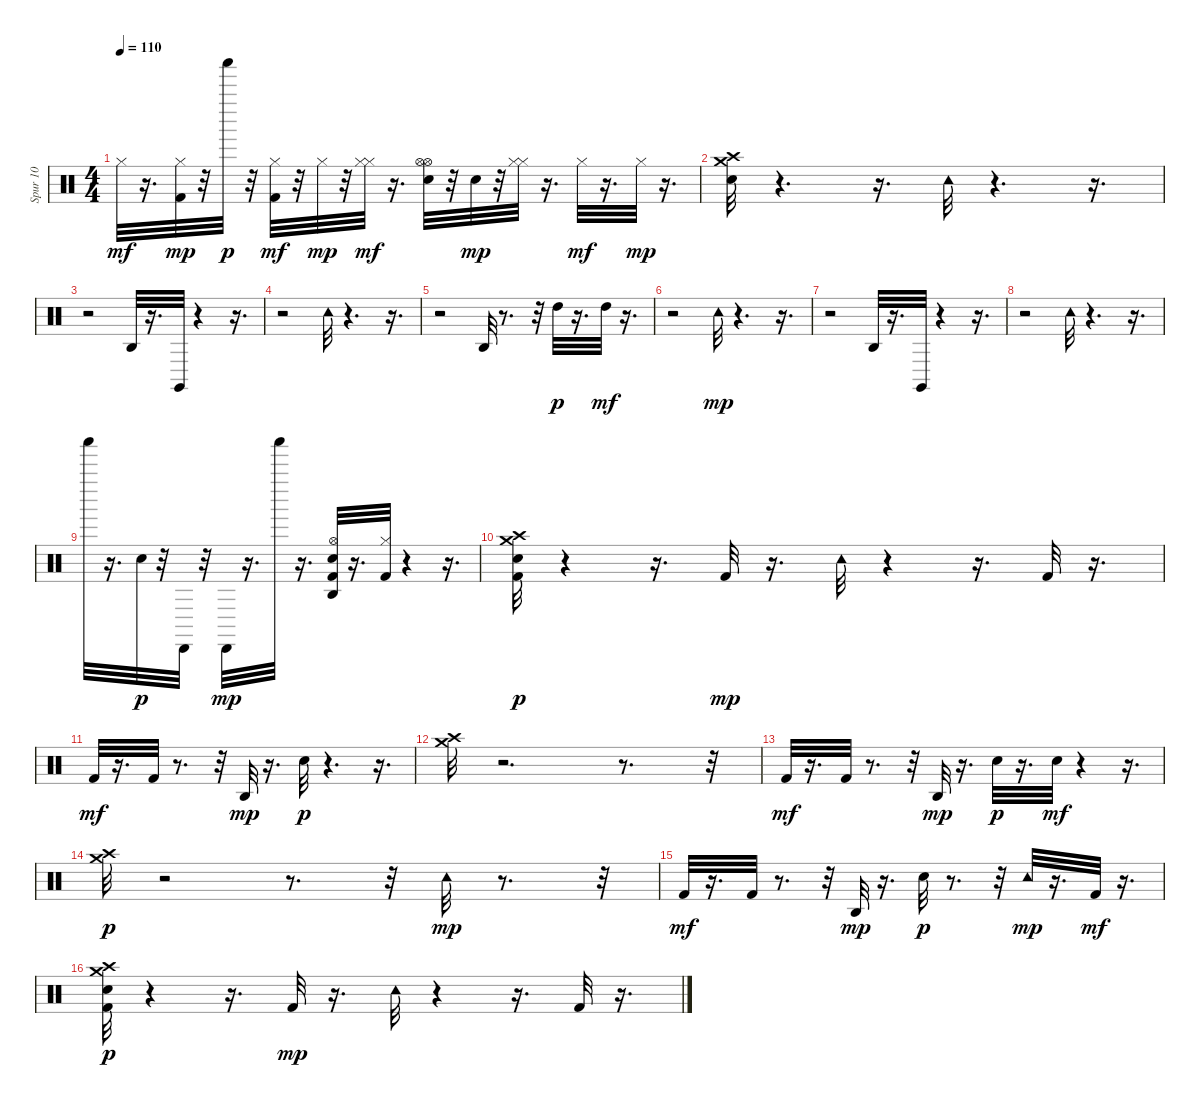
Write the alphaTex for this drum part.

\track ("Spur 10" "Spur 10") {instrument percussion}
\staff {score}
\articulation defaults
\ts (4 4)
\tempo 110
\clef neutral
\ks c "Hi-Hat (closed)".32{dy mf}
r.16{d} ("Kick (hit) 2" "Hi-Hat (closed)").32{dy mp} r.32 "Shaker (hit)".32{dy p} r.32 ("Kick (hit) 2" "Hi-Hat (closed)").32{dy mf} r.32 "Hi-Hat (closed)".32{dy mp} r.32 ("Hi-Hat (closed)" "Hi-Hat (closed)").32{dy mf} r.16{d} ("Hi-Hat (open)" "Snare (hit) 2" "Hi-Hat (open)").32 r.32 "Snare (hit)".32{dy mp} r.32 ("Hi-Hat (closed)" "Hi-Hat (closed)").32 r.16{d} "Hi-Hat (closed)".32{dy mf} r.16{d} "Hi-Hat (closed)".32{dy mp} r.16{d} |
("Snare (hit) 2" "Crash medium (hit)" "Crash high (hit)").32 r.4{d} r.16{d} "Tambourine (hit)".32 r.4{d} r.16{d} |
r.2 "Agogo high (hit)".32 r.16{d} "Claves (hit)".32 r.4 r.16{d} |
r.2 "Tambourine (hit)".32 r.4{d} r.16{d} |
r.2 "Agogo high (hit)".32 r.8{d} r.32 "High Tom (hit)".32{dy p} r.16{d} "High Tom (hit)".32{dy mf} r.16{d} |
r.2 "Tambourine (hit)".32{dy mp} r.4{d} r.16{d} |
r.2 "Agogo high (hit)".32 r.16{d} "Claves (hit)".32 r.4 r.16{d} |
r.2 "Tambourine (hit)".32 r.4{d} r.16{d} |
"Shaker (hit)".32 r.16{d} "Snare (hit) 2".32{dy p} r.32 "Cabasa (hit)".32 r.32 "Cabasa (hit)".32{dy mp} r.16{d} "Shaker (hit)".32 r.16{d} ("Kick (hit) 2" "Hi-Hat (open)" "Agogo high (hit)" "Snare (hit)").32 r.16{d} ("Kick (hit) 2" "Hi-Hat (closed)").32 r.4 r.16{d} |
("Kick (hit) 2" "Snare (hit) 2" "Crash medium (hit)" "Crash high (hit)").32{dy p} r.4 r.16{d} "Kick (hit) 2".32{dy mp} r.16{d} "Tambourine (hit)".32 r.4 r.16{d} "Kick (hit) 2".32 r.16{d} |
"Kick (hit) 2".32{dy mf} r.16{d} "Kick (hit) 2".32 r.8{d} r.32 "Agogo high (hit)".32{dy mp} r.16{d} "Snare (hit)".32{dy p} r.4{d} r.16{d} |
("Crash medium (hit)" "Crash high (hit)").32 r.2{d} r.8{d} r.32 |
"Kick (hit) 2".32{dy mf} r.16{d} "Kick (hit) 2".32 r.8{d} r.32 "Agogo high (hit)".32{dy mp} r.16{d} "Snare (hit)".32{dy p} r.16{d} "Snare (hit) 2".32{dy mf} r.4 r.16{d} |
("Crash medium (hit)" "Crash high (hit)").32{dy p} r.2 r.8{d} r.32 "Tambourine (hit)".32{dy mp} r.8{d} r.32 |
"Kick (hit) 2".32{dy mf} r.16{d} "Kick (hit) 2".32 r.8{d} r.32 "Agogo high (hit)".32{dy mp} r.16{d} "Snare (hit)".32{dy p} r.8{d} r.32 "Tambourine (hit)".32{dy mp} r.16{d} "Kick (hit) 2".32{dy mf} r.16{d} |
("Kick (hit) 2" "Snare (hit) 2" "Crash medium (hit)" "Crash high (hit)").32{dy p} r.4 r.16{d} "Kick (hit) 2".32{dy mp} r.16{d} "Tambourine (hit)".32 r.4 r.16{d} "Kick (hit) 2".32 r.16{d}
